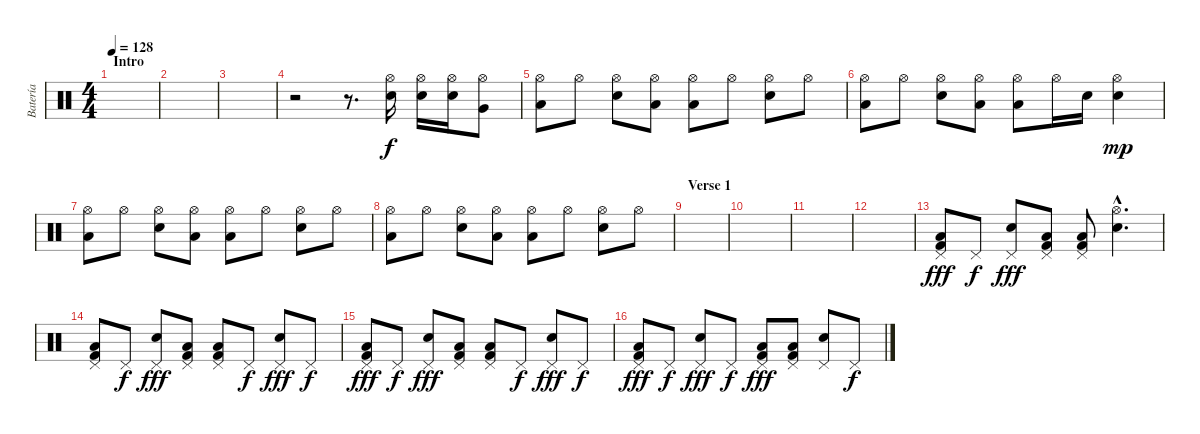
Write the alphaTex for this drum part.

\track ("Batería" "Batería") {instrument percussion}
\staff {score}
\articulation defaults
\ts (4 4)
\section ("" "Intro")
\tempo 128
\clef neutral
\ks c
|
|
|
r.2 r.8{d} ("Electric Snare (hit)" "Hi-Hat (open)").16 ("Electric Snare (hit)" "Hi-Hat (open)").16 ("Electric Snare (hit)" "Hi-Hat (open)").16 ("Very Low Tom (hit)" "Hi-Hat (open)").8 |
("Low Floor Tom (hit)" "Hi-Hat (open)").8 "Hi-Hat (open)".8 ("Electric Snare (hit)" "Hi-Hat (open)").8 ("Low Floor Tom (hit)" "Hi-Hat (open)").8 ("Low Floor Tom (hit)" "Hi-Hat (open)").8 "Hi-Hat (open)".8 ("Electric Snare (hit)" "Hi-Hat (open)").8 "Hi-Hat (open)".8 |
("Low Floor Tom (hit)" "Hi-Hat (open)").8 "Hi-Hat (open)".8 ("Electric Snare (hit)" "Hi-Hat (open)").8 ("Low Floor Tom (hit)" "Hi-Hat (open)").8 ("Low Floor Tom (hit)" "Hi-Hat (open)").8 "Hi-Hat (open)".16 "Electric Snare (hit)".16{dy f} ("Electric Snare (hit)" "Hi-Hat (open)").4{dy mp} |
("Low Floor Tom (hit)" "Hi-Hat (open)").8 "Hi-Hat (open)".8 ("Electric Snare (hit)" "Hi-Hat (open)").8 ("Low Floor Tom (hit)" "Hi-Hat (open)").8 ("Low Floor Tom (hit)" "Hi-Hat (open)").8 "Hi-Hat (open)".8 ("Electric Snare (hit)" "Hi-Hat (open)").8 "Hi-Hat (open)".8 |
("Low Floor Tom (hit)" "Hi-Hat (open)").8 "Hi-Hat (open)".8 ("Electric Snare (hit)" "Hi-Hat (open)").8 ("Low Floor Tom (hit)" "Hi-Hat (open)").8 ("Low Floor Tom (hit)" "Hi-Hat (open)").8 "Hi-Hat (open)".8 ("Electric Snare (hit)" "Hi-Hat (open)").8 "Hi-Hat (open)".8 |
\section ("" "Verse 1")
|
|
|
|
("Low Floor Tom (hit)" "Kick (hit) 2" "Pedal Hi-Hat (hit)").8{dy fff} "Pedal Hi-Hat (hit)".8{dy f} ("Electric Snare (hit)" "Pedal Hi-Hat (hit)").8{dy fff} ("Low Floor Tom (hit)" "Kick (hit) 2" "Pedal Hi-Hat (hit)").8 ("Low Floor Tom (hit)" "Kick (hit) 2" "Pedal Hi-Hat (hit)").8 ("Electric Snare (hit)"{hac} "Hi-Hat (open)"{hac}).4{d} |
("Low Floor Tom (hit)" "Kick (hit) 2" "Pedal Hi-Hat (hit)").8 "Pedal Hi-Hat (hit)".8{dy f} ("Electric Snare (hit)" "Pedal Hi-Hat (hit)").8{dy fff} ("Low Floor Tom (hit)" "Kick (hit) 2" "Pedal Hi-Hat (hit)").8 ("Low Floor Tom (hit)" "Kick (hit) 2" "Pedal Hi-Hat (hit)").8 "Pedal Hi-Hat (hit)".8{dy f} ("Electric Snare (hit)" "Pedal Hi-Hat (hit)").8{dy fff} "Pedal Hi-Hat (hit)".8{dy f} |
("Low Floor Tom (hit)" "Kick (hit) 2" "Pedal Hi-Hat (hit)").8{dy fff} "Pedal Hi-Hat (hit)".8{dy f} ("Electric Snare (hit)" "Pedal Hi-Hat (hit)").8{dy fff} ("Low Floor Tom (hit)" "Kick (hit) 2" "Pedal Hi-Hat (hit)").8 ("Low Floor Tom (hit)" "Kick (hit) 2" "Pedal Hi-Hat (hit)").8 "Pedal Hi-Hat (hit)".8{dy f} ("Electric Snare (hit)" "Pedal Hi-Hat (hit)").8{dy fff} "Pedal Hi-Hat (hit)".8{dy f} |
("Low Floor Tom (hit)" "Kick (hit) 2" "Pedal Hi-Hat (hit)").8{dy fff} "Pedal Hi-Hat (hit)".8{dy f} ("Electric Snare (hit)" "Pedal Hi-Hat (hit)").8{dy fff} "Pedal Hi-Hat (hit)".8{dy f} ("Low Floor Tom (hit)" "Kick (hit) 2" "Pedal Hi-Hat (hit)").8{dy fff} ("Low Floor Tom (hit)" "Kick (hit) 2" "Pedal Hi-Hat (hit)").8 ("Electric Snare (hit)" "Pedal Hi-Hat (hit)").8 "Pedal Hi-Hat (hit)".8{dy f}
